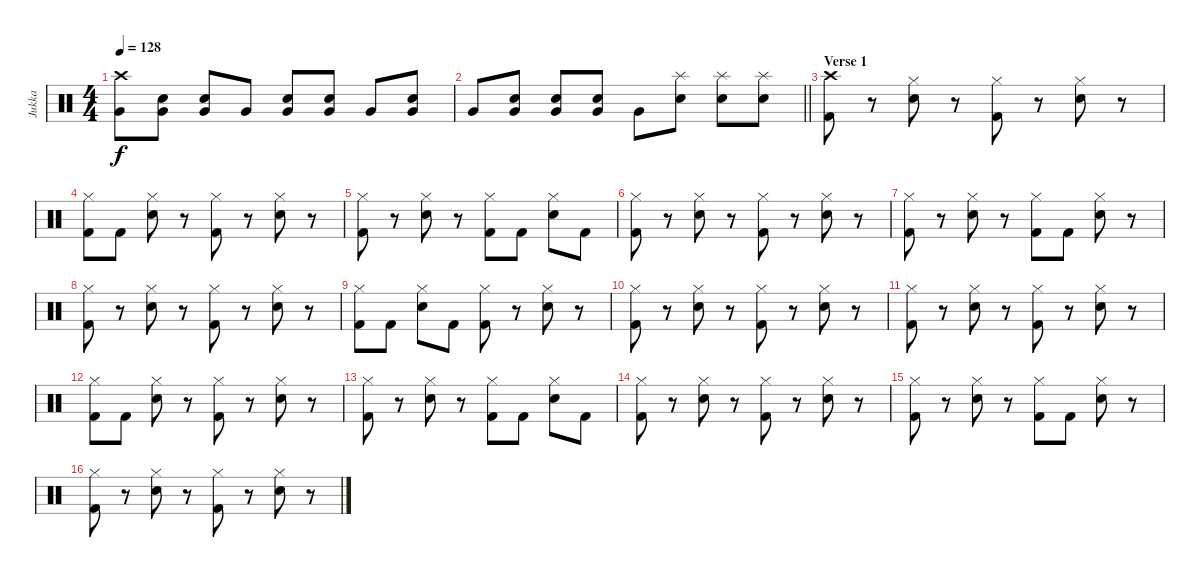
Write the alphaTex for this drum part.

\track ("Jukka" "Jukka") {instrument percussion}
\staff {score}
\articulation defaults
\ts (4 4)
\tempo 128
\clef neutral
\ks c
("Crash high (hit)" "Very Low Tom (hit)").8{dy f} ("Electric Snare (hit)" "Very Low Tom (hit)").8 ("Electric Snare (hit)" "Very Low Tom (hit)").8 "Very Low Tom (hit)".8 ("Electric Snare (hit)" "Very Low Tom (hit)").8 ("Electric Snare (hit)" "Very Low Tom (hit)").8 "Very Low Tom (hit)".8 ("Electric Snare (hit)" "Very Low Tom (hit)").8 |
\barLineRight lightlight "Very Low Tom (hit)".8
("Electric Snare (hit)" "Very Low Tom (hit)").8 ("Electric Snare (hit)" "Very Low Tom (hit)").8 ("Electric Snare (hit)" "Very Low Tom (hit)").8 "Very Low Tom (hit)".8 ("Electric Snare (hit)" "Splash (hit)").8 ("Electric Snare (hit)" "Splash (hit)").8 ("Electric Snare (hit)" "Splash (hit)").8 |
\section ("" "Verse 1")
("Kick (hit) 2" "Crash high (hit)").8 r.8 ("Electric Snare (hit)" "Hi-Hat (closed)").8 r.8 ("Kick (hit) 2" "Hi-Hat (closed)").8 r.8 ("Electric Snare (hit)" "Hi-Hat (closed)").8 r.8 |
("Kick (hit) 2" "Hi-Hat (closed)").8 "Kick (hit) 2".8 ("Electric Snare (hit)" "Hi-Hat (closed)").8 r.8 ("Kick (hit) 2" "Hi-Hat (closed)").8 r.8 ("Electric Snare (hit)" "Hi-Hat (closed)").8 r.8 |
("Kick (hit) 2" "Hi-Hat (closed)").8 r.8 ("Electric Snare (hit)" "Hi-Hat (closed)").8 r.8 ("Kick (hit) 2" "Hi-Hat (closed)").8 "Kick (hit) 2".8 ("Electric Snare (hit)" "Hi-Hat (closed)").8 "Kick (hit) 2".8 |
("Kick (hit) 2" "Hi-Hat (closed)").8 r.8 ("Electric Snare (hit)" "Hi-Hat (closed)").8 r.8 ("Kick (hit) 2" "Hi-Hat (closed)").8 r.8 ("Electric Snare (hit)" "Hi-Hat (closed)").8 r.8 |
("Kick (hit) 2" "Hi-Hat (closed)").8 r.8 ("Electric Snare (hit)" "Hi-Hat (closed)").8 r.8 ("Kick (hit) 2" "Hi-Hat (closed)").8 "Kick (hit) 2".8 ("Electric Snare (hit)" "Hi-Hat (closed)").8 r.8 |
("Kick (hit) 2" "Hi-Hat (closed)").8 r.8 ("Electric Snare (hit)" "Hi-Hat (closed)").8 r.8 ("Kick (hit) 2" "Hi-Hat (closed)").8 r.8 ("Electric Snare (hit)" "Hi-Hat (closed)").8 r.8 |
("Kick (hit) 2" "Hi-Hat (closed)").8 "Kick (hit) 2".8 ("Electric Snare (hit)" "Hi-Hat (closed)").8 "Kick (hit) 2".8 ("Kick (hit) 2" "Hi-Hat (closed)").8 r.8 ("Electric Snare (hit)" "Hi-Hat (closed)").8 r.8 |
("Kick (hit) 2" "Hi-Hat (closed)").8 r.8 ("Electric Snare (hit)" "Hi-Hat (closed)").8 r.8 ("Kick (hit) 2" "Hi-Hat (closed)").8 r.8 ("Electric Snare (hit)" "Hi-Hat (closed)").8 r.8 |
("Kick (hit) 2" "Hi-Hat (closed)").8 r.8 ("Electric Snare (hit)" "Hi-Hat (closed)").8 r.8 ("Kick (hit) 2" "Hi-Hat (closed)").8 r.8 ("Electric Snare (hit)" "Hi-Hat (closed)").8 r.8 |
("Kick (hit) 2" "Hi-Hat (closed)").8 "Kick (hit) 2".8 ("Electric Snare (hit)" "Hi-Hat (closed)").8 r.8 ("Kick (hit) 2" "Hi-Hat (closed)").8 r.8 ("Electric Snare (hit)" "Hi-Hat (closed)").8 r.8 |
("Kick (hit) 2" "Hi-Hat (closed)").8 r.8 ("Electric Snare (hit)" "Hi-Hat (closed)").8 r.8 ("Kick (hit) 2" "Hi-Hat (closed)").8 "Kick (hit) 2".8 ("Electric Snare (hit)" "Hi-Hat (closed)").8 "Kick (hit) 2".8 |
("Kick (hit) 2" "Hi-Hat (closed)").8 r.8 ("Electric Snare (hit)" "Hi-Hat (closed)").8 r.8 ("Kick (hit) 2" "Hi-Hat (closed)").8 r.8 ("Electric Snare (hit)" "Hi-Hat (closed)").8 r.8 |
("Kick (hit) 2" "Hi-Hat (closed)").8 r.8 ("Electric Snare (hit)" "Hi-Hat (closed)").8 r.8 ("Kick (hit) 2" "Hi-Hat (closed)").8 "Kick (hit) 2".8 ("Electric Snare (hit)" "Hi-Hat (closed)").8 r.8 |
("Kick (hit) 2" "Hi-Hat (closed)").8 r.8 ("Electric Snare (hit)" "Hi-Hat (closed)").8 r.8 ("Kick (hit) 2" "Hi-Hat (closed)").8 r.8 ("Electric Snare (hit)" "Hi-Hat (closed)").8 r.8
